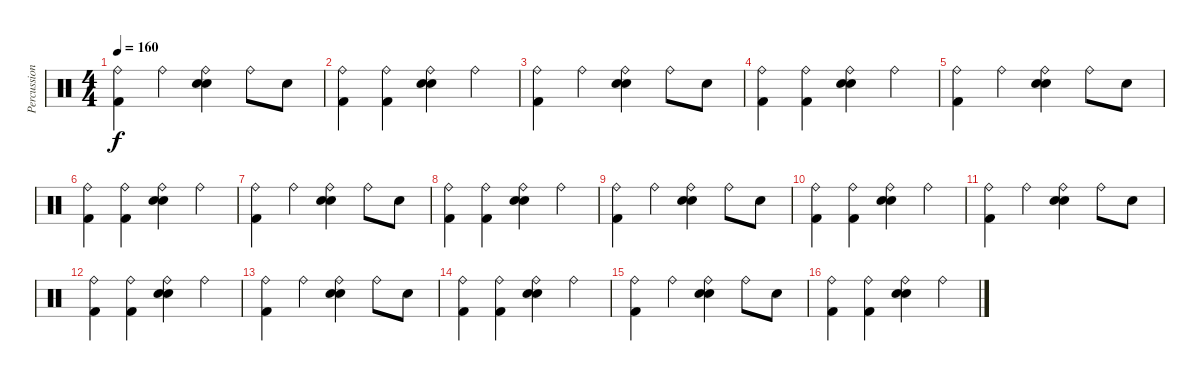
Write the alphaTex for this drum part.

\track ("Percussion" "Percussion") {instrument percussion}
\staff {score}
\articulation defaults
\ts (4 4)
\tempo 160
\clef neutral
\ks c
("Ride (bell)" "Kick (hit) 2").4{dy f} "Ride (bell)".4 ("Ride (bell)" "Snare (hit) 2" "Hand Clap (hit)").4 "Ride (bell)".8 "Snare (hit) 2".8 |
("Ride (bell)" "Kick (hit) 2").4 ("Ride (bell)" "Kick (hit) 2").4 ("Ride (bell)" "Snare (hit) 2" "Hand Clap (hit)").4 "Ride (bell)".4 |
("Ride (bell)" "Kick (hit) 2").4 "Ride (bell)".4 ("Ride (bell)" "Snare (hit) 2" "Hand Clap (hit)").4 "Ride (bell)".8 "Snare (hit) 2".8 |
("Ride (bell)" "Kick (hit) 2").4 ("Ride (bell)" "Kick (hit) 2").4 ("Ride (bell)" "Snare (hit) 2" "Hand Clap (hit)").4 "Ride (bell)".4 |
("Ride (bell)" "Kick (hit) 2").4 "Ride (bell)".4 ("Ride (bell)" "Snare (hit) 2" "Hand Clap (hit)").4 "Ride (bell)".8 "Snare (hit) 2".8 |
("Ride (bell)" "Kick (hit) 2").4 ("Ride (bell)" "Kick (hit) 2").4 ("Ride (bell)" "Snare (hit) 2" "Hand Clap (hit)").4 "Ride (bell)".4 |
("Ride (bell)" "Kick (hit) 2").4 "Ride (bell)".4 ("Ride (bell)" "Snare (hit) 2" "Hand Clap (hit)").4 "Ride (bell)".8 "Snare (hit) 2".8 |
("Ride (bell)" "Kick (hit) 2").4 ("Ride (bell)" "Kick (hit) 2").4 ("Ride (bell)" "Snare (hit) 2" "Hand Clap (hit)").4 "Ride (bell)".4 |
("Ride (bell)" "Kick (hit) 2").4 "Ride (bell)".4 ("Ride (bell)" "Snare (hit) 2" "Hand Clap (hit)").4 "Ride (bell)".8 "Snare (hit) 2".8 |
("Ride (bell)" "Kick (hit) 2").4 ("Ride (bell)" "Kick (hit) 2").4 ("Ride (bell)" "Snare (hit) 2" "Hand Clap (hit)").4 "Ride (bell)".4 |
("Ride (bell)" "Kick (hit) 2").4 "Ride (bell)".4 ("Ride (bell)" "Snare (hit) 2" "Hand Clap (hit)").4 "Ride (bell)".8 "Snare (hit) 2".8 |
("Ride (bell)" "Kick (hit) 2").4 ("Ride (bell)" "Kick (hit) 2").4 ("Ride (bell)" "Snare (hit) 2" "Hand Clap (hit)").4 "Ride (bell)".4 |
("Ride (bell)" "Kick (hit) 2").4 "Ride (bell)".4 ("Ride (bell)" "Snare (hit) 2" "Hand Clap (hit)").4 "Ride (bell)".8 "Snare (hit) 2".8 |
("Ride (bell)" "Kick (hit) 2").4 ("Ride (bell)" "Kick (hit) 2").4 ("Ride (bell)" "Snare (hit) 2" "Hand Clap (hit)").4 "Ride (bell)".4 |
("Ride (bell)" "Kick (hit) 2").4 "Ride (bell)".4 ("Ride (bell)" "Snare (hit) 2" "Hand Clap (hit)").4 "Ride (bell)".8 "Snare (hit) 2".8 |
("Ride (bell)" "Kick (hit) 2").4 ("Ride (bell)" "Kick (hit) 2").4 ("Ride (bell)" "Snare (hit) 2" "Hand Clap (hit)").4 "Ride (bell)".4
